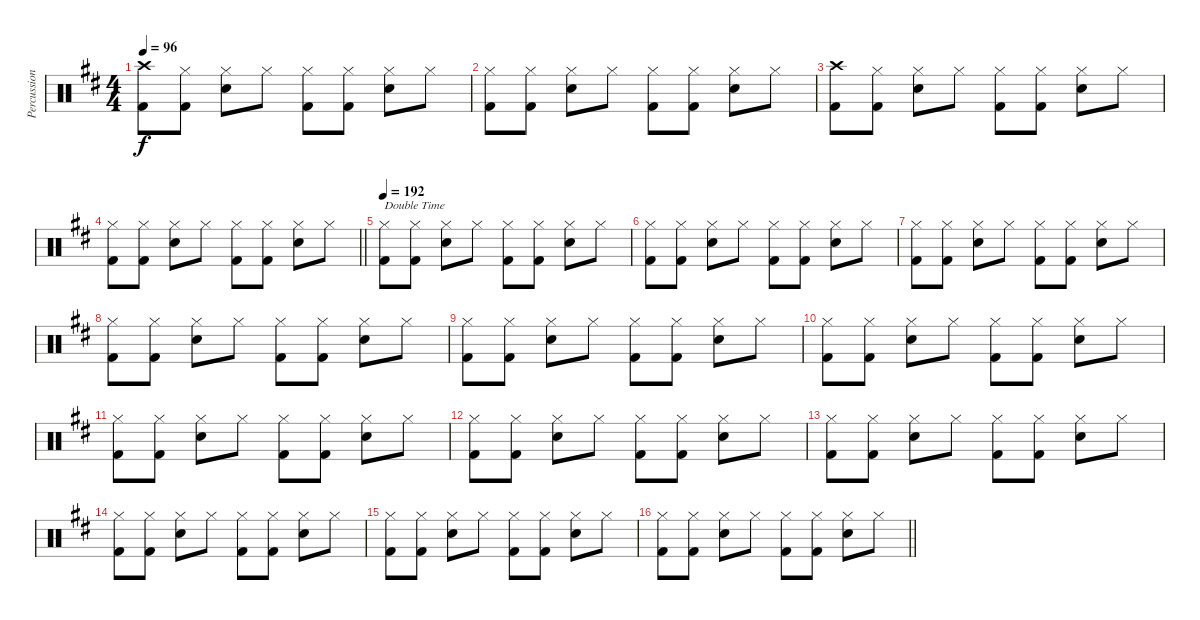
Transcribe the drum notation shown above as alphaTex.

\track ("Percussions" "Percussion") {instrument percussion}
\staff {score}
\articulation defaults
\ts (4 4)
\tempo 96
\clef neutral
\ks d
("Crash high (hit)" "Kick (hit) 2").8{dy f} ("Hi-Hat (closed)" "Kick (hit) 2").8 ("Hi-Hat (closed)" "Snare (hit) 2").8 "Hi-Hat (closed)".8 ("Hi-Hat (closed)" "Kick (hit) 2").8 ("Hi-Hat (closed)" "Kick (hit) 2").8 ("Hi-Hat (closed)" "Snare (hit) 2").8 "Hi-Hat (closed)".8 |
("Hi-Hat (closed)" "Kick (hit) 2").8 ("Hi-Hat (closed)" "Kick (hit) 2").8 ("Hi-Hat (closed)" "Snare (hit) 2").8 "Hi-Hat (closed)".8 ("Hi-Hat (closed)" "Kick (hit) 2").8 ("Hi-Hat (closed)" "Kick (hit) 2").8 ("Hi-Hat (closed)" "Snare (hit) 2").8 "Hi-Hat (closed)".8 |
("Crash high (hit)" "Kick (hit) 2").8 ("Hi-Hat (closed)" "Kick (hit) 2").8 ("Hi-Hat (closed)" "Snare (hit) 2").8 "Hi-Hat (closed)".8 ("Hi-Hat (closed)" "Kick (hit) 2").8 ("Hi-Hat (closed)" "Kick (hit) 2").8 ("Hi-Hat (closed)" "Snare (hit) 2").8 "Hi-Hat (closed)".8 |
\barLineRight lightlight
("Hi-Hat (closed)" "Kick (hit) 2").8 ("Hi-Hat (closed)" "Kick (hit) 2").8 ("Hi-Hat (closed)" "Snare (hit) 2").8 "Hi-Hat (closed)".8 ("Hi-Hat (closed)" "Kick (hit) 2").8 ("Hi-Hat (closed)" "Kick (hit) 2").8 ("Hi-Hat (closed)" "Snare (hit) 2").8 "Hi-Hat (closed)".8 |
\tempo 192
("Hi-Hat (closed)" "Kick (hit) 2").8{txt "Double Time"} ("Hi-Hat (closed)" "Kick (hit) 2").8 ("Hi-Hat (closed)" "Snare (hit) 2").8 "Hi-Hat (closed)".8 ("Hi-Hat (closed)" "Kick (hit) 2").8 ("Hi-Hat (closed)" "Kick (hit) 2").8 ("Hi-Hat (closed)" "Snare (hit) 2").8 "Hi-Hat (closed)".8 |
("Hi-Hat (closed)" "Kick (hit) 2").8 ("Hi-Hat (closed)" "Kick (hit) 2").8 ("Hi-Hat (closed)" "Snare (hit) 2").8 "Hi-Hat (closed)".8 ("Hi-Hat (closed)" "Kick (hit) 2").8 ("Hi-Hat (closed)" "Kick (hit) 2").8 ("Hi-Hat (closed)" "Snare (hit) 2").8 "Hi-Hat (closed)".8 |
("Hi-Hat (closed)" "Kick (hit) 2").8 ("Hi-Hat (closed)" "Kick (hit) 2").8 ("Hi-Hat (closed)" "Snare (hit) 2").8 "Hi-Hat (closed)".8 ("Hi-Hat (closed)" "Kick (hit) 2").8 ("Hi-Hat (closed)" "Kick (hit) 2").8 ("Hi-Hat (closed)" "Snare (hit) 2").8 "Hi-Hat (closed)".8 |
("Hi-Hat (closed)" "Kick (hit) 2").8 ("Hi-Hat (closed)" "Kick (hit) 2").8 ("Hi-Hat (closed)" "Snare (hit) 2").8 "Hi-Hat (closed)".8 ("Hi-Hat (closed)" "Kick (hit) 2").8 ("Hi-Hat (closed)" "Kick (hit) 2").8 ("Hi-Hat (closed)" "Snare (hit) 2").8 "Hi-Hat (closed)".8 |
("Hi-Hat (closed)" "Kick (hit) 2").8 ("Hi-Hat (closed)" "Kick (hit) 2").8 ("Hi-Hat (closed)" "Snare (hit) 2").8 "Hi-Hat (closed)".8 ("Hi-Hat (closed)" "Kick (hit) 2").8 ("Hi-Hat (closed)" "Kick (hit) 2").8 ("Hi-Hat (closed)" "Snare (hit) 2").8 "Hi-Hat (closed)".8 |
("Hi-Hat (closed)" "Kick (hit) 2").8 ("Hi-Hat (closed)" "Kick (hit) 2").8 ("Hi-Hat (closed)" "Snare (hit) 2").8 "Hi-Hat (closed)".8 ("Hi-Hat (closed)" "Kick (hit) 2").8 ("Hi-Hat (closed)" "Kick (hit) 2").8 ("Hi-Hat (closed)" "Snare (hit) 2").8 "Hi-Hat (closed)".8 |
("Hi-Hat (closed)" "Kick (hit) 2").8 ("Hi-Hat (closed)" "Kick (hit) 2").8 ("Hi-Hat (closed)" "Snare (hit) 2").8 "Hi-Hat (closed)".8 ("Hi-Hat (closed)" "Kick (hit) 2").8 ("Hi-Hat (closed)" "Kick (hit) 2").8 ("Hi-Hat (closed)" "Snare (hit) 2").8 "Hi-Hat (closed)".8 |
("Hi-Hat (closed)" "Kick (hit) 2").8 ("Hi-Hat (closed)" "Kick (hit) 2").8 ("Hi-Hat (closed)" "Snare (hit) 2").8 "Hi-Hat (closed)".8 ("Hi-Hat (closed)" "Kick (hit) 2").8 ("Hi-Hat (closed)" "Kick (hit) 2").8 ("Hi-Hat (closed)" "Snare (hit) 2").8 "Hi-Hat (closed)".8 |
("Hi-Hat (closed)" "Kick (hit) 2").8 ("Hi-Hat (closed)" "Kick (hit) 2").8 ("Hi-Hat (closed)" "Snare (hit) 2").8 "Hi-Hat (closed)".8 ("Hi-Hat (closed)" "Kick (hit) 2").8 ("Hi-Hat (closed)" "Kick (hit) 2").8 ("Hi-Hat (closed)" "Snare (hit) 2").8 "Hi-Hat (closed)".8 |
("Hi-Hat (closed)" "Kick (hit) 2").8 ("Hi-Hat (closed)" "Kick (hit) 2").8 ("Hi-Hat (closed)" "Snare (hit) 2").8 "Hi-Hat (closed)".8 ("Hi-Hat (closed)" "Kick (hit) 2").8 ("Hi-Hat (closed)" "Kick (hit) 2").8 ("Hi-Hat (closed)" "Snare (hit) 2").8 "Hi-Hat (closed)".8 |
("Hi-Hat (closed)" "Kick (hit) 2").8 ("Hi-Hat (closed)" "Kick (hit) 2").8 ("Hi-Hat (closed)" "Snare (hit) 2").8 "Hi-Hat (closed)".8 ("Hi-Hat (closed)" "Kick (hit) 2").8 ("Hi-Hat (closed)" "Kick (hit) 2").8 ("Hi-Hat (closed)" "Snare (hit) 2").8 "Hi-Hat (closed)".8 |
\barLineRight lightlight
("Hi-Hat (closed)" "Kick (hit) 2").8 ("Hi-Hat (closed)" "Kick (hit) 2").8 ("Hi-Hat (closed)" "Snare (hit) 2").8 "Hi-Hat (closed)".8 ("Hi-Hat (closed)" "Kick (hit) 2").8 ("Hi-Hat (closed)" "Kick (hit) 2").8 ("Hi-Hat (closed)" "Snare (hit) 2").8 "Hi-Hat (closed)".8
